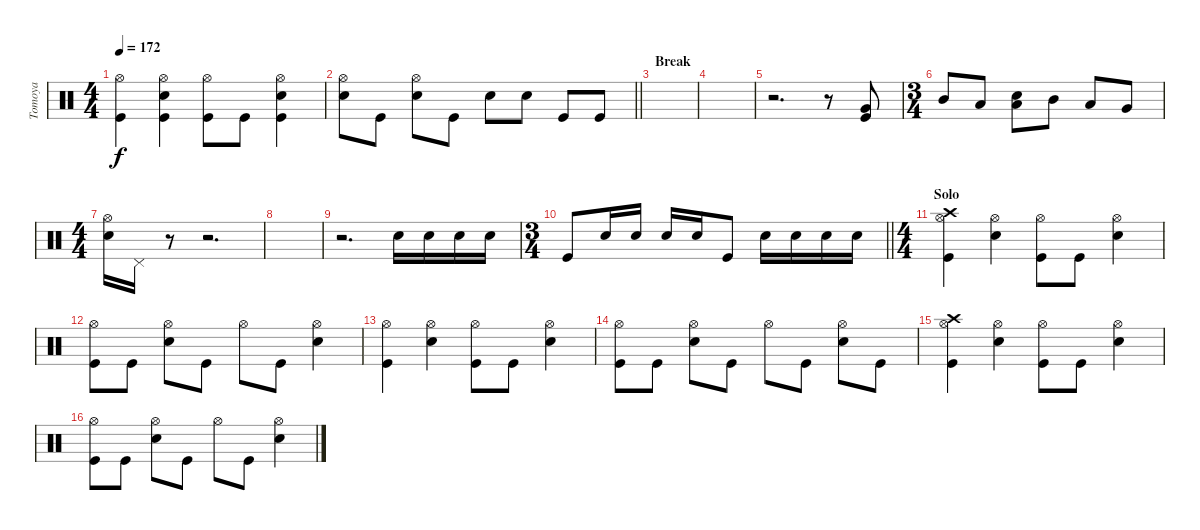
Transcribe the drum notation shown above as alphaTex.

\track ("Tomoya" "Tomoya") {instrument percussion}
\staff {score}
\articulation defaults
\ts (4 4)
\tempo 172
\clef neutral
\ks c
("Hi-Hat (open)" "Kick (hit)").4{dy f} ("Snare (hit) 2" "Hi-Hat (open)" "Kick (hit)").4 ("Hi-Hat (open)" "Kick (hit)").8 "Kick (hit)".8 ("Snare (hit) 2" "Hi-Hat (open)" "Kick (hit)").4 |
\barLineRight lightlight
("Hi-Hat (open)" "Snare (hit) 2").8 "Kick (hit)".8 ("Hi-Hat (open)" "Snare (hit) 2").8 "Kick (hit)".8 "Snare (hit) 2".8 "Snare (hit) 2".8 "Kick (hit)".8 "Kick (hit)".8 |
\section ("" "Break")
|
|
r.2{d} r.8 ("Very Low Tom (hit)" "Kick (hit)").8{volume 14} |
\ts (3 4)
"Mid Tom (hit)".8 "Low Tom (hit)".8 ("Snare (hit) 2" "Low Tom (hit)").8 "Mid Tom (hit)".8 "Low Tom (hit)".8 "Very Low Tom (hit)".8 |
\ts (4 4)
("Hi-Hat (open)" "Snare (hit) 2").16 "Pedal Hi-Hat (hit)".16{volume 10} r.8 r.2{d} |
|
r.2{d} "Snare (hit) 2".16 "Snare (hit) 2".16 "Snare (hit) 2".16 "Snare (hit) 2".16 |
\ts (3 4)
\barLineRight lightlight "Kick (hit)".8 "Snare (hit) 2".16 "Snare (hit) 2".16 "Snare (hit) 2".16 "Snare (hit) 2".16 "Kick (hit)".8 "Snare (hit) 2".16 "Snare (hit) 2".16 "Snare (hit) 2".16 "Snare (hit) 2".16
|
\ts (4 4)
\section ("" "Solo")
("Crash high (hit)" "Hi-Hat (open)" "Kick (hit)").4 ("Hi-Hat (open)" "Snare (hit) 2").4 ("Hi-Hat (open)" "Kick (hit)").8 "Kick (hit)".8 ("Hi-Hat (open)" "Snare (hit) 2").4 |
("Hi-Hat (open)" "Kick (hit)").8 "Kick (hit)".8 ("Hi-Hat (open)" "Snare (hit) 2").8 "Kick (hit)".8 "Hi-Hat (open)".8 "Kick (hit)".8 ("Hi-Hat (open)" "Snare (hit) 2").4 |
("Hi-Hat (open)" "Kick (hit)").4 ("Hi-Hat (open)" "Snare (hit) 2").4 ("Hi-Hat (open)" "Kick (hit)").8 "Kick (hit)".8 ("Hi-Hat (open)" "Snare (hit) 2").4 |
("Hi-Hat (open)" "Kick (hit)").8 "Kick (hit)".8 ("Hi-Hat (open)" "Snare (hit) 2").8 "Kick (hit)".8 "Hi-Hat (open)".8 "Kick (hit)".8 ("Hi-Hat (open)" "Snare (hit) 2").8 "Kick (hit)".8 |
("Crash high (hit)" "Hi-Hat (open)" "Kick (hit)").4 ("Hi-Hat (open)" "Snare (hit) 2").4 ("Hi-Hat (open)" "Kick (hit)").8 "Kick (hit)".8 ("Hi-Hat (open)" "Snare (hit) 2").4 |
("Hi-Hat (open)" "Kick (hit)").8 "Kick (hit)".8 ("Hi-Hat (open)" "Snare (hit) 2").8 "Kick (hit)".8 "Hi-Hat (open)".8 "Kick (hit)".8 ("Hi-Hat (open)" "Snare (hit) 2").4
